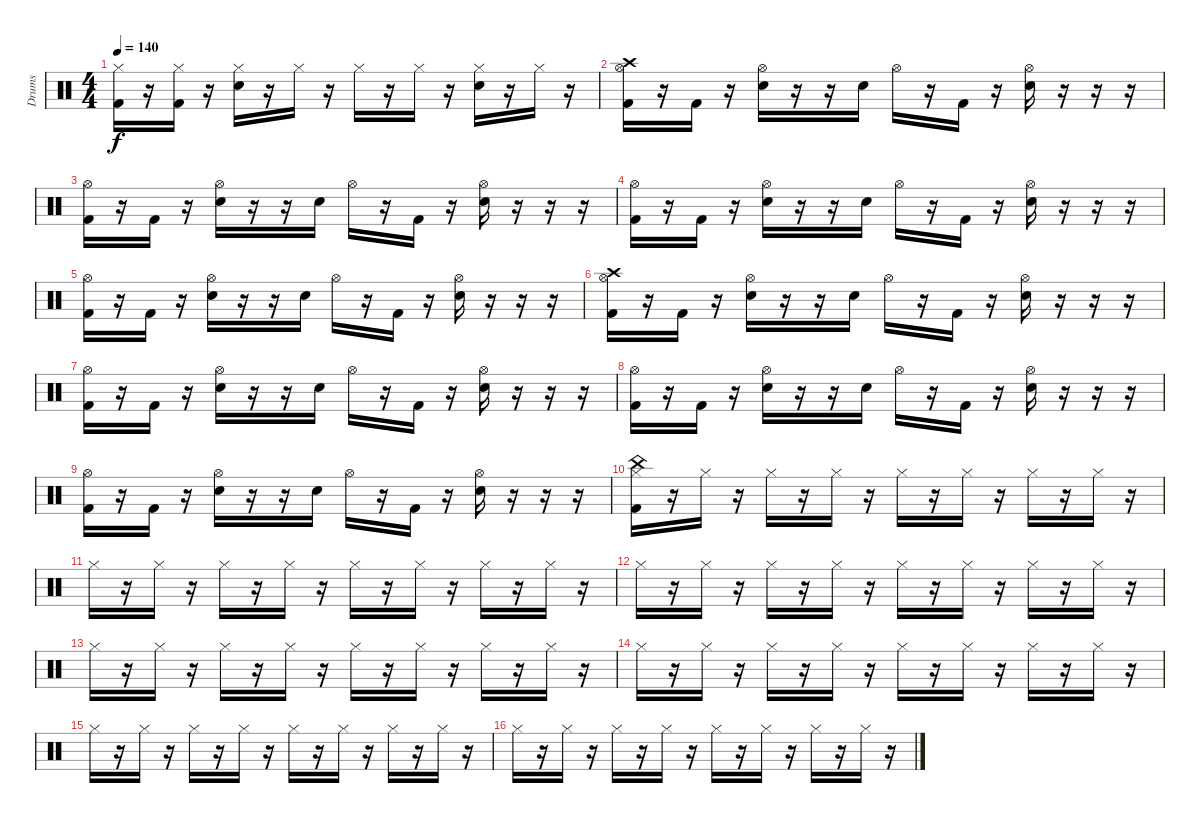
\track ("Drums" "Drums") {instrument percussion}
\staff {score}
\articulation defaults
\ts (4 4)
\tempo 140
\clef neutral
\ks c
("Kick (hit) 2" "Hi-Hat (closed)").16{dy f} r.16 ("Kick (hit) 2" "Hi-Hat (closed)").16 r.16 ("Electric Snare (hit)" "Hi-Hat (closed)").16 r.16 "Hi-Hat (closed)".16 r.16 "Hi-Hat (closed)".16 r.16 "Hi-Hat (closed)".16 r.16 ("Electric Snare (hit)" "Hi-Hat (closed)").16 r.16 "Hi-Hat (closed)".16 r.16 |
("Kick (hit) 2" "Crash high (hit)" "Hi-Hat (open)").16 r.16 "Kick (hit) 2".16 r.16 ("Electric Snare (hit)" "Hi-Hat (open)").16 r.16 r.16 "Electric Snare (hit)".16 "Hi-Hat (open)".16 r.16 "Kick (hit) 2".16 r.16 ("Electric Snare (hit)" "Hi-Hat (open)").16 r.16 r.16 r.16 |
("Kick (hit) 2" "Hi-Hat (open)").16 r.16 "Kick (hit) 2".16 r.16 ("Electric Snare (hit)" "Hi-Hat (open)").16 r.16 r.16 "Electric Snare (hit)".16 "Hi-Hat (open)".16 r.16 "Kick (hit) 2".16 r.16 ("Electric Snare (hit)" "Hi-Hat (open)").16 r.16 r.16 r.16 |
("Kick (hit) 2" "Hi-Hat (open)").16 r.16 "Kick (hit) 2".16 r.16 ("Electric Snare (hit)" "Hi-Hat (open)").16 r.16 r.16 "Electric Snare (hit)".16 "Hi-Hat (open)".16 r.16 "Kick (hit) 2".16 r.16 ("Electric Snare (hit)" "Hi-Hat (open)").16 r.16 r.16 r.16 |
("Kick (hit) 2" "Hi-Hat (open)").16 r.16 "Kick (hit) 2".16 r.16 ("Electric Snare (hit)" "Hi-Hat (open)").16 r.16 r.16 "Electric Snare (hit)".16 "Hi-Hat (open)".16 r.16 "Kick (hit) 2".16 r.16 ("Electric Snare (hit)" "Hi-Hat (open)").16 r.16 r.16 r.16 |
("Kick (hit) 2" "Crash high (hit)" "Hi-Hat (open)").16 r.16 "Kick (hit) 2".16 r.16 ("Electric Snare (hit)" "Hi-Hat (open)").16 r.16 r.16 "Electric Snare (hit)".16 "Hi-Hat (open)".16 r.16 "Kick (hit) 2".16 r.16 ("Electric Snare (hit)" "Hi-Hat (open)").16 r.16 r.16 r.16 |
("Kick (hit) 2" "Hi-Hat (open)").16 r.16 "Kick (hit) 2".16 r.16 ("Electric Snare (hit)" "Hi-Hat (open)").16 r.16 r.16 "Electric Snare (hit)".16 "Hi-Hat (open)".16 r.16 "Kick (hit) 2".16 r.16 ("Electric Snare (hit)" "Hi-Hat (open)").16 r.16 r.16 r.16 |
("Kick (hit) 2" "Hi-Hat (open)").16 r.16 "Kick (hit) 2".16 r.16 ("Electric Snare (hit)" "Hi-Hat (open)").16 r.16 r.16 "Electric Snare (hit)".16 "Hi-Hat (open)".16 r.16 "Kick (hit) 2".16 r.16 ("Electric Snare (hit)" "Hi-Hat (open)").16 r.16 r.16 r.16 |
("Kick (hit) 2" "Hi-Hat (open)").16 r.16 "Kick (hit) 2".16 r.16 ("Electric Snare (hit)" "Hi-Hat (open)").16 r.16 r.16 "Electric Snare (hit)".16 "Hi-Hat (open)".16 r.16 "Kick (hit) 2".16 r.16 ("Electric Snare (hit)" "Hi-Hat (open)").16 r.16 r.16 r.16 |
("Kick (hit) 2" "China (hit)" "Hi-Hat (closed)").16 r.16 "Hi-Hat (closed)".16 r.16 "Hi-Hat (closed)".16 r.16 "Hi-Hat (closed)".16 r.16 "Hi-Hat (closed)".16 r.16 "Hi-Hat (closed)".16 r.16 "Hi-Hat (closed)".16 r.16 "Hi-Hat (closed)".16 r.16 |
"Hi-Hat (closed)".16 r.16 "Hi-Hat (closed)".16 r.16 "Hi-Hat (closed)".16 r.16 "Hi-Hat (closed)".16 r.16 "Hi-Hat (closed)".16 r.16 "Hi-Hat (closed)".16 r.16 "Hi-Hat (closed)".16 r.16 "Hi-Hat (closed)".16 r.16 |
"Hi-Hat (closed)".16 r.16 "Hi-Hat (closed)".16 r.16 "Hi-Hat (closed)".16 r.16 "Hi-Hat (closed)".16 r.16 "Hi-Hat (closed)".16 r.16 "Hi-Hat (closed)".16 r.16 "Hi-Hat (closed)".16 r.16 "Hi-Hat (closed)".16 r.16 |
"Hi-Hat (closed)".16 r.16 "Hi-Hat (closed)".16 r.16 "Hi-Hat (closed)".16 r.16 "Hi-Hat (closed)".16 r.16 "Hi-Hat (closed)".16 r.16 "Hi-Hat (closed)".16 r.16 "Hi-Hat (closed)".16 r.16 "Hi-Hat (closed)".16 r.16 |
"Hi-Hat (closed)".16 r.16 "Hi-Hat (closed)".16 r.16 "Hi-Hat (closed)".16 r.16 "Hi-Hat (closed)".16 r.16 "Hi-Hat (closed)".16 r.16 "Hi-Hat (closed)".16 r.16 "Hi-Hat (closed)".16 r.16 "Hi-Hat (closed)".16 r.16 |
"Hi-Hat (closed)".16 r.16 "Hi-Hat (closed)".16 r.16 "Hi-Hat (closed)".16 r.16 "Hi-Hat (closed)".16 r.16 "Hi-Hat (closed)".16 r.16 "Hi-Hat (closed)".16 r.16 "Hi-Hat (closed)".16 r.16 "Hi-Hat (closed)".16 r.16 |
"Hi-Hat (closed)".16 r.16 "Hi-Hat (closed)".16 r.16 "Hi-Hat (closed)".16 r.16 "Hi-Hat (closed)".16 r.16 "Hi-Hat (closed)".16 r.16 "Hi-Hat (closed)".16 r.16 "Hi-Hat (closed)".16 r.16 "Hi-Hat (closed)".16 r.16
